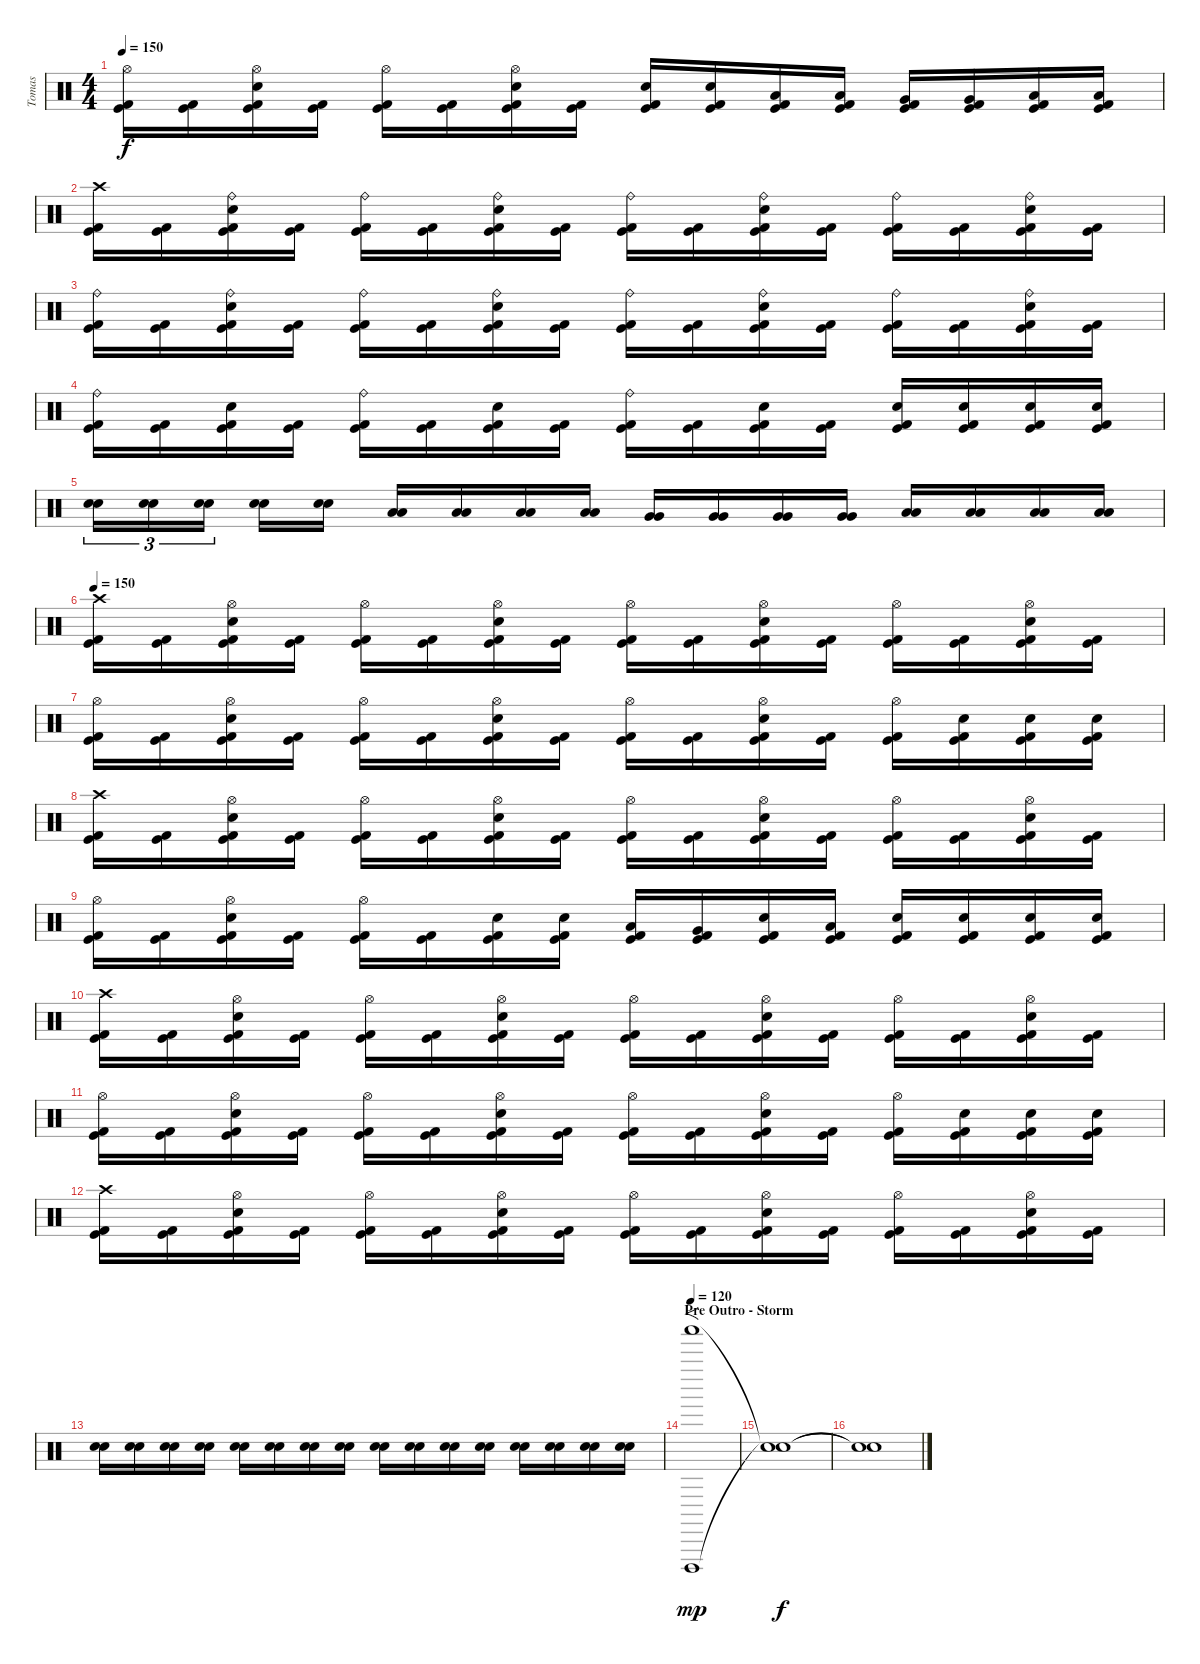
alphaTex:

\track ("Tomas" "Tomas") {instrument percussion}
\staff {score}
\articulation defaults
\ts (4 4)
\tempo 150
\clef neutral
\ks c
("Hi-Hat (open)" "Kick (hit)" "Kick (hit) 2").16{dy f} ("Kick (hit)" "Kick (hit) 2").16 ("Hi-Hat (open)" "Electric Snare (hit)" "Kick (hit)" "Kick (hit) 2").16 ("Kick (hit)" "Kick (hit) 2").16 ("Hi-Hat (open)" "Kick (hit)" "Kick (hit) 2").16 ("Kick (hit)" "Kick (hit) 2").16 ("Hi-Hat (open)" "Electric Snare (hit)" "Kick (hit)" "Kick (hit) 2").16 ("Kick (hit)" "Kick (hit) 2").16 ("Electric Snare (hit)" "Kick (hit)" "Kick (hit) 2").16 ("Electric Snare (hit)" "Kick (hit)" "Kick (hit) 2").16 ("Low Tom (hit)" "Kick (hit)" "Kick (hit) 2").16 ("Low Tom (hit)" "Kick (hit)" "Kick (hit) 2").16 ("Very Low Tom (hit)" "Kick (hit)" "Kick (hit) 2").16 ("Very Low Tom (hit)" "Kick (hit)" "Kick (hit) 2").16 ("Low Floor Tom (hit)" "Kick (hit)" "Kick (hit) 2").16 ("Low Floor Tom (hit)" "Kick (hit)" "Kick (hit) 2").16 |
("Crash high (hit)" "Kick (hit)" "Kick (hit) 2").16 ("Kick (hit)" "Kick (hit) 2").16 ("Ride (bell)" "Electric Snare (hit)" "Kick (hit)" "Kick (hit) 2").16 ("Kick (hit)" "Kick (hit) 2").16 ("Ride (bell)" "Kick (hit)" "Kick (hit) 2").16 ("Kick (hit)" "Kick (hit) 2").16 ("Ride (bell)" "Electric Snare (hit)" "Kick (hit)" "Kick (hit) 2").16 ("Kick (hit)" "Kick (hit) 2").16 ("Ride (bell)" "Kick (hit)" "Kick (hit) 2").16 ("Kick (hit)" "Kick (hit) 2").16 ("Ride (bell)" "Electric Snare (hit)" "Kick (hit)" "Kick (hit) 2").16 ("Kick (hit)" "Kick (hit) 2").16 ("Ride (bell)" "Kick (hit)" "Kick (hit) 2").16 ("Kick (hit)" "Kick (hit) 2").16 ("Ride (bell)" "Electric Snare (hit)" "Kick (hit)" "Kick (hit) 2").16 ("Kick (hit)" "Kick (hit) 2").16 |
("Ride (bell)" "Kick (hit)" "Kick (hit) 2").16 ("Kick (hit)" "Kick (hit) 2").16 ("Ride (bell)" "Electric Snare (hit)" "Kick (hit)" "Kick (hit) 2").16 ("Kick (hit)" "Kick (hit) 2").16 ("Ride (bell)" "Kick (hit)" "Kick (hit) 2").16 ("Kick (hit)" "Kick (hit) 2").16 ("Ride (bell)" "Electric Snare (hit)" "Kick (hit)" "Kick (hit) 2").16 ("Kick (hit)" "Kick (hit) 2").16 ("Ride (bell)" "Kick (hit)" "Kick (hit) 2").16 ("Kick (hit)" "Kick (hit) 2").16 ("Ride (bell)" "Electric Snare (hit)" "Kick (hit)" "Kick (hit) 2").16 ("Kick (hit)" "Kick (hit) 2").16 ("Ride (bell)" "Kick (hit)" "Kick (hit) 2").16 ("Kick (hit)" "Kick (hit) 2").16 ("Ride (bell)" "Electric Snare (hit)" "Kick (hit)" "Kick (hit) 2").16 ("Kick (hit)" "Kick (hit) 2").16 |
("Ride (bell)" "Kick (hit)" "Kick (hit) 2").16 ("Kick (hit)" "Kick (hit) 2").16 ("Electric Snare (hit)" "Kick (hit)" "Kick (hit) 2").16 ("Kick (hit)" "Kick (hit) 2").16 ("Ride (bell)" "Kick (hit)" "Kick (hit) 2").16 ("Kick (hit)" "Kick (hit) 2").16 ("Electric Snare (hit)" "Kick (hit)" "Kick (hit) 2").16 ("Kick (hit)" "Kick (hit) 2").16 ("Ride (bell)" "Kick (hit)" "Kick (hit) 2").16 ("Kick (hit)" "Kick (hit) 2").16 ("Electric Snare (hit)" "Kick (hit)" "Kick (hit) 2").16 ("Kick (hit)" "Kick (hit) 2").16 ("Electric Snare (hit)" "Kick (hit)" "Kick (hit) 2").16 ("Electric Snare (hit)" "Kick (hit)" "Kick (hit) 2").16 ("Electric Snare (hit)" "Kick (hit)" "Kick (hit) 2").16 ("Electric Snare (hit)" "Kick (hit)" "Kick (hit) 2").16 |
("Electric Snare (hit)" "Electric Snare (hit)").16{tu (3 2)} ("Electric Snare (hit)" "Electric Snare (hit)").16{tu (3 2)} ("Electric Snare (hit)" "Electric Snare (hit)").16{tu (3 2)} ("Electric Snare (hit)" "Electric Snare (hit)").16 ("Electric Snare (hit)" "Electric Snare (hit)").16 ("Low Tom (hit)" "Low Tom (hit)").16 ("Low Tom (hit)" "Low Tom (hit)").16 ("Low Tom (hit)" "Low Tom (hit)").16 ("Low Tom (hit)" "Low Tom (hit)").16 ("Very Low Tom (hit)" "Very Low Tom (hit)").16 ("Very Low Tom (hit)" "Very Low Tom (hit)").16 ("Very Low Tom (hit)" "Very Low Tom (hit)").16 ("Very Low Tom (hit)" "Very Low Tom (hit)").16 ("Low Floor Tom (hit)" "Low Floor Tom (hit)").16 ("Low Floor Tom (hit)" "Low Floor Tom (hit)").16 ("Low Floor Tom (hit)" "Low Floor Tom (hit)").16 ("Low Floor Tom (hit)" "Low Floor Tom (hit)").16 |
\tempo 150
("Crash high (hit)" "Kick (hit)" "Kick (hit) 2").16 ("Kick (hit)" "Kick (hit) 2").16 ("Hi-Hat (open)" "Electric Snare (hit)" "Kick (hit)" "Kick (hit) 2").16 ("Kick (hit)" "Kick (hit) 2").16 ("Hi-Hat (open)" "Kick (hit)" "Kick (hit) 2").16 ("Kick (hit)" "Kick (hit) 2").16 ("Hi-Hat (open)" "Electric Snare (hit)" "Kick (hit)" "Kick (hit) 2").16 ("Kick (hit)" "Kick (hit) 2").16 ("Hi-Hat (open)" "Kick (hit)" "Kick (hit) 2").16 ("Kick (hit)" "Kick (hit) 2").16 ("Hi-Hat (open)" "Electric Snare (hit)" "Kick (hit)" "Kick (hit) 2").16 ("Kick (hit)" "Kick (hit) 2").16 ("Hi-Hat (open)" "Kick (hit)" "Kick (hit) 2").16 ("Kick (hit)" "Kick (hit) 2").16 ("Hi-Hat (open)" "Electric Snare (hit)" "Kick (hit)" "Kick (hit) 2").16 ("Kick (hit)" "Kick (hit) 2").16 |
("Hi-Hat (open)" "Kick (hit)" "Kick (hit) 2").16 ("Kick (hit)" "Kick (hit) 2").16 ("Hi-Hat (open)" "Electric Snare (hit)" "Kick (hit)" "Kick (hit) 2").16 ("Kick (hit)" "Kick (hit) 2").16 ("Hi-Hat (open)" "Kick (hit)" "Kick (hit) 2").16 ("Kick (hit)" "Kick (hit) 2").16 ("Hi-Hat (open)" "Electric Snare (hit)" "Kick (hit)" "Kick (hit) 2").16 ("Kick (hit)" "Kick (hit) 2").16 ("Hi-Hat (open)" "Kick (hit)" "Kick (hit) 2").16 ("Kick (hit)" "Kick (hit) 2").16 ("Hi-Hat (open)" "Electric Snare (hit)" "Kick (hit)" "Kick (hit) 2").16 ("Kick (hit)" "Kick (hit) 2").16 ("Hi-Hat (open)" "Kick (hit)" "Kick (hit) 2").16 ("Electric Snare (hit)" "Kick (hit)" "Kick (hit) 2").16 ("Electric Snare (hit)" "Kick (hit)" "Kick (hit) 2").16 ("Electric Snare (hit)" "Kick (hit)" "Kick (hit) 2").16 |
("Crash high (hit)" "Kick (hit)" "Kick (hit) 2").16 ("Kick (hit)" "Kick (hit) 2").16 ("Hi-Hat (open)" "Electric Snare (hit)" "Kick (hit)" "Kick (hit) 2").16 ("Kick (hit)" "Kick (hit) 2").16 ("Hi-Hat (open)" "Kick (hit)" "Kick (hit) 2").16 ("Kick (hit)" "Kick (hit) 2").16 ("Hi-Hat (open)" "Electric Snare (hit)" "Kick (hit)" "Kick (hit) 2").16 ("Kick (hit)" "Kick (hit) 2").16 ("Hi-Hat (open)" "Kick (hit)" "Kick (hit) 2").16 ("Kick (hit)" "Kick (hit) 2").16 ("Hi-Hat (open)" "Electric Snare (hit)" "Kick (hit)" "Kick (hit) 2").16 ("Kick (hit)" "Kick (hit) 2").16 ("Hi-Hat (open)" "Kick (hit)" "Kick (hit) 2").16 ("Kick (hit)" "Kick (hit) 2").16 ("Hi-Hat (open)" "Electric Snare (hit)" "Kick (hit)" "Kick (hit) 2").16 ("Kick (hit)" "Kick (hit) 2").16 |
("Hi-Hat (open)" "Kick (hit)" "Kick (hit) 2").16 ("Kick (hit)" "Kick (hit) 2").16 ("Hi-Hat (open)" "Electric Snare (hit)" "Kick (hit)" "Kick (hit) 2").16 ("Kick (hit)" "Kick (hit) 2").16 ("Hi-Hat (open)" "Kick (hit)" "Kick (hit) 2").16 ("Kick (hit)" "Kick (hit) 2").16 ("Electric Snare (hit)" "Kick (hit)" "Kick (hit) 2").16 ("Electric Snare (hit)" "Kick (hit)" "Kick (hit) 2").16 ("Low Tom (hit)" "Kick (hit)" "Kick (hit) 2").16 ("Very Low Tom (hit)" "Kick (hit)" "Kick (hit) 2").16 ("Electric Snare (hit)" "Kick (hit)" "Kick (hit) 2").16 ("Low Floor Tom (hit)" "Kick (hit)" "Kick (hit) 2").16 ("Electric Snare (hit)" "Kick (hit)" "Kick (hit) 2").16 ("Electric Snare (hit)" "Kick (hit)" "Kick (hit) 2").16 ("Electric Snare (hit)" "Kick (hit)" "Kick (hit) 2").16 ("Electric Snare (hit)" "Kick (hit)" "Kick (hit) 2").16 |
("Crash high (hit)" "Kick (hit)" "Kick (hit) 2").16 ("Kick (hit)" "Kick (hit) 2").16 ("Hi-Hat (open)" "Electric Snare (hit)" "Kick (hit)" "Kick (hit) 2").16 ("Kick (hit)" "Kick (hit) 2").16 ("Hi-Hat (open)" "Kick (hit)" "Kick (hit) 2").16 ("Kick (hit)" "Kick (hit) 2").16 ("Hi-Hat (open)" "Electric Snare (hit)" "Kick (hit)" "Kick (hit) 2").16 ("Kick (hit)" "Kick (hit) 2").16 ("Hi-Hat (open)" "Kick (hit)" "Kick (hit) 2").16 ("Kick (hit)" "Kick (hit) 2").16 ("Hi-Hat (open)" "Electric Snare (hit)" "Kick (hit)" "Kick (hit) 2").16 ("Kick (hit)" "Kick (hit) 2").16 ("Hi-Hat (open)" "Kick (hit)" "Kick (hit) 2").16 ("Kick (hit)" "Kick (hit) 2").16 ("Hi-Hat (open)" "Electric Snare (hit)" "Kick (hit)" "Kick (hit) 2").16 ("Kick (hit)" "Kick (hit) 2").16 |
("Hi-Hat (open)" "Kick (hit)" "Kick (hit) 2").16 ("Kick (hit)" "Kick (hit) 2").16 ("Hi-Hat (open)" "Electric Snare (hit)" "Kick (hit)" "Kick (hit) 2").16 ("Kick (hit)" "Kick (hit) 2").16 ("Hi-Hat (open)" "Kick (hit)" "Kick (hit) 2").16 ("Kick (hit)" "Kick (hit) 2").16 ("Hi-Hat (open)" "Electric Snare (hit)" "Kick (hit)" "Kick (hit) 2").16 ("Kick (hit)" "Kick (hit) 2").16 ("Hi-Hat (open)" "Kick (hit)" "Kick (hit) 2").16 ("Kick (hit)" "Kick (hit) 2").16 ("Hi-Hat (open)" "Electric Snare (hit)" "Kick (hit)" "Kick (hit) 2").16 ("Kick (hit)" "Kick (hit) 2").16 ("Hi-Hat (open)" "Kick (hit)" "Kick (hit) 2").16 ("Electric Snare (hit)" "Kick (hit)" "Kick (hit) 2").16 ("Electric Snare (hit)" "Kick (hit)" "Kick (hit) 2").16 ("Electric Snare (hit)" "Kick (hit)" "Kick (hit) 2").16 |
("Crash high (hit)" "Kick (hit)" "Kick (hit) 2").16 ("Kick (hit)" "Kick (hit) 2").16 ("Hi-Hat (open)" "Electric Snare (hit)" "Kick (hit)" "Kick (hit) 2").16 ("Kick (hit)" "Kick (hit) 2").16 ("Hi-Hat (open)" "Kick (hit)" "Kick (hit) 2").16 ("Kick (hit)" "Kick (hit) 2").16 ("Hi-Hat (open)" "Electric Snare (hit)" "Kick (hit)" "Kick (hit) 2").16 ("Kick (hit)" "Kick (hit) 2").16 ("Hi-Hat (open)" "Kick (hit)" "Kick (hit) 2").16 ("Kick (hit)" "Kick (hit) 2").16 ("Hi-Hat (open)" "Electric Snare (hit)" "Kick (hit)" "Kick (hit) 2").16 ("Kick (hit)" "Kick (hit) 2").16 ("Hi-Hat (open)" "Kick (hit)" "Kick (hit) 2").16 ("Kick (hit)" "Kick (hit) 2").16 ("Hi-Hat (open)" "Electric Snare (hit)" "Kick (hit)" "Kick (hit) 2").16 ("Kick (hit)" "Kick (hit) 2").16 |
("Electric Snare (hit)" "Electric Snare (hit)").16 ("Electric Snare (hit)" "Electric Snare (hit)").16 ("Electric Snare (hit)" "Electric Snare (hit)").16 ("Electric Snare (hit)" "Electric Snare (hit)").16 ("Electric Snare (hit)" "Electric Snare (hit)").16 ("Electric Snare (hit)" "Electric Snare (hit)").16 ("Electric Snare (hit)" "Electric Snare (hit)").16 ("Electric Snare (hit)" "Electric Snare (hit)").16 ("Electric Snare (hit)" "Electric Snare (hit)").16 ("Electric Snare (hit)" "Electric Snare (hit)").16 ("Electric Snare (hit)" "Electric Snare (hit)").16 ("Electric Snare (hit)" "Electric Snare (hit)").16 ("Electric Snare (hit)" "Electric Snare (hit)").16 ("Electric Snare (hit)" "Electric Snare (hit)").16 ("Electric Snare (hit)" "Electric Snare (hit)").16 ("Electric Snare (hit)" "Electric Snare (hit)").16 |
\section ("" "Pre Outro - Storm ")
\tempo 120
("Shaker (hit)" "Cuica (open)").1{f dy mp} |
("Snare (hit)"{t} "Snare (hit)"{t}).1{dy f} |
("Snare (hit)"{t} "Snare (hit)"{t}).1
